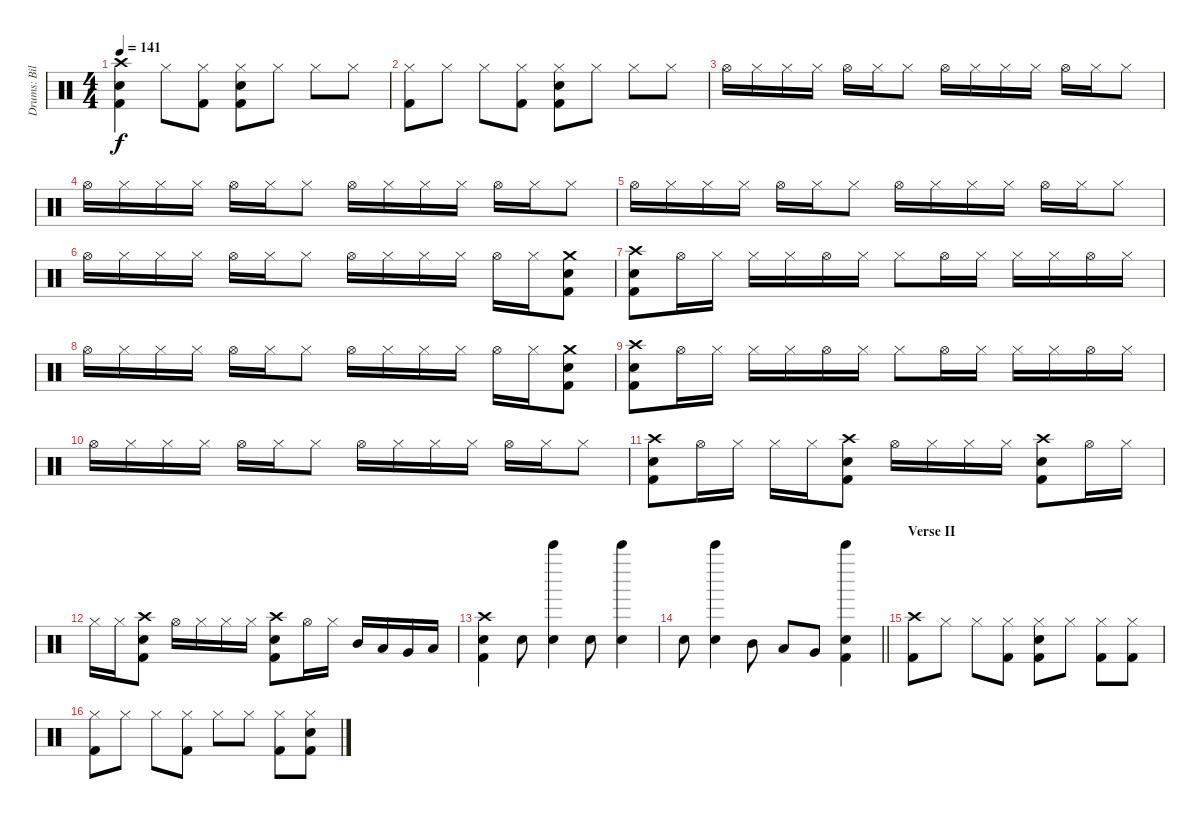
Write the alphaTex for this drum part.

\track ("Drums: Bill" "Drums: Bil") {instrument percussion}
\staff {score}
\articulation defaults
\ts (4 4)
\tempo 141
\clef neutral
\ks c
("Crash high (hit)" "Snare (hit) 2" "Kick (hit) 2").4{dy f} "Hi-Hat (closed)".8 ("Hi-Hat (closed)" "Kick (hit) 2").8 ("Hi-Hat (closed)" "Snare (hit) 2" "Kick (hit) 2").8 "Hi-Hat (closed)".8 "Hi-Hat (closed)".8 "Hi-Hat (closed)".8 |
("Hi-Hat (closed)" "Kick (hit) 2").8 "Hi-Hat (closed)".8 "Hi-Hat (closed)".8 ("Hi-Hat (closed)" "Kick (hit) 2").8 ("Hi-Hat (closed)" "Snare (hit) 2" "Kick (hit) 2").8 "Hi-Hat (closed)".8 "Hi-Hat (closed)".8 "Hi-Hat (closed)".8 |
"Hi-Hat (open)".16 "Hi-Hat (closed)".16 "Hi-Hat (closed)".16 "Hi-Hat (closed)".16 "Hi-Hat (open)".16 "Hi-Hat (closed)".16 "Hi-Hat (closed)".8 "Hi-Hat (open)".16 "Hi-Hat (closed)".16 "Hi-Hat (closed)".16 "Hi-Hat (closed)".16 "Hi-Hat (open)".16 "Hi-Hat (closed)".16 "Hi-Hat (closed)".8 |
"Hi-Hat (open)".16 "Hi-Hat (closed)".16 "Hi-Hat (closed)".16 "Hi-Hat (closed)".16 "Hi-Hat (open)".16 "Hi-Hat (closed)".16 "Hi-Hat (closed)".8 "Hi-Hat (open)".16 "Hi-Hat (closed)".16 "Hi-Hat (closed)".16 "Hi-Hat (closed)".16 "Hi-Hat (open)".16 "Hi-Hat (closed)".16 "Hi-Hat (closed)".8 |
"Hi-Hat (open)".16 "Hi-Hat (closed)".16 "Hi-Hat (closed)".16 "Hi-Hat (closed)".16 "Hi-Hat (open)".16 "Hi-Hat (closed)".16 "Hi-Hat (closed)".8 "Hi-Hat (open)".16 "Hi-Hat (closed)".16 "Hi-Hat (closed)".16 "Hi-Hat (closed)".16 "Hi-Hat (open)".16 "Hi-Hat (closed)".16 "Hi-Hat (closed)".8 |
"Hi-Hat (open)".16 "Hi-Hat (closed)".16 "Hi-Hat (closed)".16 "Hi-Hat (closed)".16 "Hi-Hat (open)".16 "Hi-Hat (closed)".16 "Hi-Hat (closed)".8 "Hi-Hat (open)".16 "Hi-Hat (closed)".16 "Hi-Hat (closed)".16 "Hi-Hat (closed)".16 "Hi-Hat (open)".16 "Hi-Hat (closed)".16 ("Crash medium (hit)" "Snare (hit) 2" "Kick (hit) 2").8 |
("Crash high (hit)" "Snare (hit) 2" "Kick (hit) 2").8 "Hi-Hat (open)".16 "Hi-Hat (closed)".16 "Hi-Hat (closed)".16 "Hi-Hat (closed)".16 "Hi-Hat (open)".16 "Hi-Hat (closed)".16 "Hi-Hat (closed)".8 "Hi-Hat (open)".16 "Hi-Hat (closed)".16 "Hi-Hat (closed)".16 "Hi-Hat (closed)".16 "Hi-Hat (open)".16 "Hi-Hat (closed)".16 |
"Hi-Hat (open)".16 "Hi-Hat (closed)".16 "Hi-Hat (closed)".16 "Hi-Hat (closed)".16 "Hi-Hat (open)".16 "Hi-Hat (closed)".16 "Hi-Hat (closed)".8 "Hi-Hat (open)".16 "Hi-Hat (closed)".16 "Hi-Hat (closed)".16 "Hi-Hat (closed)".16 "Hi-Hat (open)".16 "Hi-Hat (closed)".16 ("Crash medium (hit)" "Snare (hit) 2" "Kick (hit) 2").8 |
("Crash high (hit)" "Snare (hit) 2" "Kick (hit) 2").8 "Hi-Hat (open)".16 "Hi-Hat (closed)".16 "Hi-Hat (closed)".16 "Hi-Hat (closed)".16 "Hi-Hat (open)".16 "Hi-Hat (closed)".16 "Hi-Hat (closed)".8 "Hi-Hat (open)".16 "Hi-Hat (closed)".16 "Hi-Hat (closed)".16 "Hi-Hat (closed)".16 "Hi-Hat (open)".16 "Hi-Hat (closed)".16 |
"Hi-Hat (open)".16 "Hi-Hat (closed)".16 "Hi-Hat (closed)".16 "Hi-Hat (closed)".16 "Hi-Hat (open)".16 "Hi-Hat (closed)".16 "Hi-Hat (closed)".8 "Hi-Hat (open)".16 "Hi-Hat (closed)".16 "Hi-Hat (closed)".16 "Hi-Hat (closed)".16 "Hi-Hat (open)".16 "Hi-Hat (closed)".16 "Hi-Hat (closed)".8 |
("Crash high (hit)" "Snare (hit) 2" "Kick (hit) 2").8 "Hi-Hat (open)".16 "Hi-Hat (closed)".16 "Hi-Hat (closed)".16 "Hi-Hat (closed)".16 ("Crash high (hit)" "Snare (hit) 2" "Kick (hit) 2").8 "Hi-Hat (open)".16 "Hi-Hat (closed)".16 "Hi-Hat (closed)".16 "Hi-Hat (closed)".16 ("Crash high (hit)" "Snare (hit) 2" "Kick (hit) 2").8 "Hi-Hat (open)".16 "Hi-Hat (closed)".16 |
"Hi-Hat (closed)".16 "Hi-Hat (closed)".16 ("Crash high (hit)" "Snare (hit) 2" "Kick (hit) 2").8 "Hi-Hat (open)".16 "Hi-Hat (closed)".16 "Hi-Hat (closed)".16 "Hi-Hat (closed)".16 ("Crash high (hit)" "Snare (hit) 2" "Kick (hit) 2").8 "Hi-Hat (open)".16 "Hi-Hat (closed)".16 "Mid Tom (hit)".16 "Low Tom (hit)".16 "Very Low Tom (hit)".16 "Low Floor Tom (hit)".16 |
("Crash high (hit)" "Snare (hit) 2" "Kick (hit) 2").4 "Snare (hit) 2".8 ("Bell Tree (hit)" "Snare (hit) 2").4 "Snare (hit) 2".8 ("Bell Tree (hit)" "Snare (hit) 2").4 |
\barLineRight lightlight "Snare (hit) 2".8
("Bell Tree (hit)" "Snare (hit) 2").4 "Mid Tom (hit)".8 "Low Tom (hit)".8 "Very Low Tom (hit)".8 ("Bell Tree (hit)" "Snare (hit) 2" "Kick (hit) 2").4 |
\section ("" "Verse II")
("Crash high (hit)" "Kick (hit) 2").8 "Hi-Hat (closed)".8 "Hi-Hat (closed)".8 ("Hi-Hat (closed)" "Kick (hit) 2").8 ("Hi-Hat (closed)" "Snare (hit) 2" "Kick (hit) 2").8 "Hi-Hat (closed)".8 ("Hi-Hat (closed)" "Kick (hit) 2").8 ("Hi-Hat (closed)" "Kick (hit) 2").8 |
("Hi-Hat (closed)" "Kick (hit) 2").8 "Hi-Hat (closed)".8 "Hi-Hat (closed)".8 ("Hi-Hat (closed)" "Kick (hit) 2").8 "Hi-Hat (closed)".8 "Hi-Hat (closed)".8 ("Hi-Hat (closed)" "Kick (hit) 2").8 ("Hi-Hat (closed)" "Snare (hit) 2" "Kick (hit) 2").8
